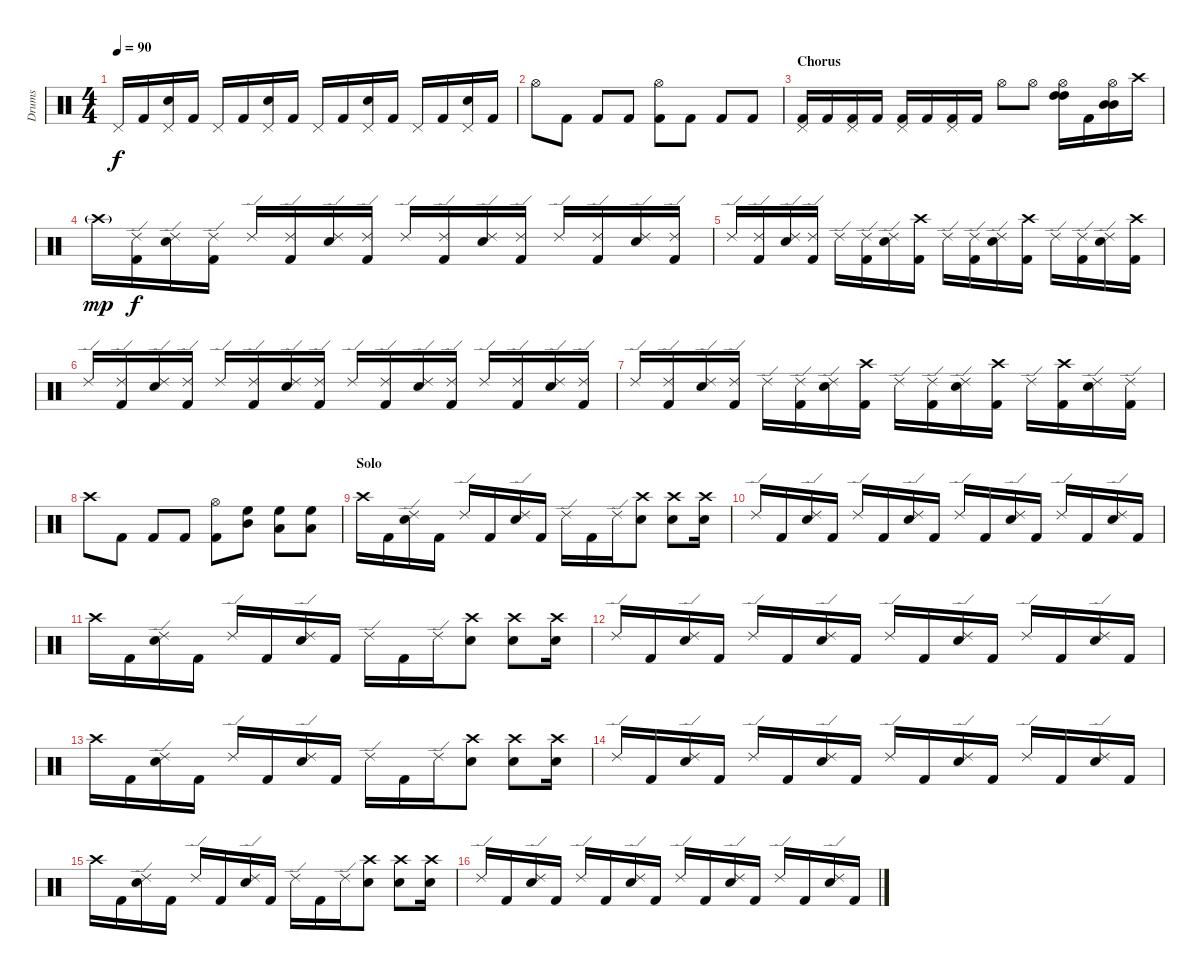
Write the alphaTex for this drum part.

\track ("Drums" "Drums") {instrument percussion}
\staff {score}
\articulation defaults
\ts (4 4)
\tempo 90
\clef neutral
\ks c "Pedal Hi-Hat (hit)".16{dy f} "Kick (hit) 2".16
("Pedal Hi-Hat (hit)" "Snare (hit) 2").16 "Kick (hit) 2".16 "Pedal Hi-Hat (hit)".16 "Kick (hit) 2".16 ("Pedal Hi-Hat (hit)" "Snare (hit) 2").16 "Kick (hit) 2".16 "Pedal Hi-Hat (hit)".16 "Kick (hit) 2".16 ("Pedal Hi-Hat (hit)" "Snare (hit) 2").16 "Kick (hit) 2".16 "Pedal Hi-Hat (hit)".16 "Kick (hit) 2".16 ("Pedal Hi-Hat (hit)" "Snare (hit) 2").16 "Kick (hit) 2".16 |
"Hi-Hat (open)".8 "Kick (hit) 2".8 "Kick (hit) 2".8 "Kick (hit) 2".8 ("Hi-Hat (open)" "Kick (hit) 2").8 "Kick (hit) 2".8 "Kick (hit) 2".8 "Kick (hit) 2".8 |
\section ("" "Chorus")
("Pedal Hi-Hat (hit)" "Kick (hit) 2").16 "Kick (hit) 2".16 ("Pedal Hi-Hat (hit)" "Kick (hit) 2").16 "Kick (hit) 2".16 ("Pedal Hi-Hat (hit)" "Kick (hit) 2").16 "Kick (hit) 2".16 ("Pedal Hi-Hat (hit)" "Kick (hit) 2").16 "Kick (hit) 2".16 "Hi-Hat (open)".8 "Hi-Hat (open)".8 ("High Tom (hit)" "Hi-Hat (open)" "High Tom (hit)").16 "Kick (hit) 2".16 ("Mid Tom (hit)" "Hi-Hat (open)" "Mid Tom (hit)").16 "Crash high (hit)".16 |
"Crash high (hit)"{g}.16{dy mp} ("Ride (edge) 2" "Kick (hit) 2").16{dy f} ("Ride (edge) 2" "Snare (hit) 2").16 ("Ride (edge) 2" "Kick (hit) 2").16 "Ride (edge) 2".16 ("Ride (edge) 2" "Kick (hit) 2").16 ("Ride (edge) 2" "Snare (hit) 2").16 ("Ride (edge) 2" "Kick (hit) 2").16 "Ride (edge) 2".16 ("Ride (edge) 2" "Kick (hit) 2").16 ("Ride (edge) 2" "Snare (hit) 2").16 ("Ride (edge) 2" "Kick (hit) 2").16 "Ride (edge) 2".16 ("Ride (edge) 2" "Kick (hit) 2").16 ("Ride (edge) 2" "Snare (hit) 2").16 ("Ride (edge) 2" "Kick (hit) 2").16 |
"Ride (edge) 2".16 ("Ride (edge) 2" "Kick (hit) 2").16 ("Ride (edge) 2" "Snare (hit) 2").16 ("Ride (edge) 2" "Kick (hit) 2").16 "Ride (edge) 2".16 ("Ride (edge) 2" "Kick (hit) 2").16 ("Ride (edge) 2" "Snare (hit) 2").16 ("Crash high (hit)" "Kick (hit) 2").16 "Ride (edge) 2".16 ("Ride (edge) 2" "Kick (hit) 2").16 ("Ride (edge) 2" "Snare (hit) 2").16 ("Crash high (hit)" "Kick (hit) 2").16 "Ride (edge) 2".16 ("Ride (edge) 2" "Kick (hit) 2").16 ("Ride (edge) 2" "Snare (hit) 2").16 ("Crash high (hit)" "Kick (hit) 2").16 |
"Ride (edge) 2".16 ("Ride (edge) 2" "Kick (hit) 2").16 ("Ride (edge) 2" "Snare (hit) 2").16 ("Ride (edge) 2" "Kick (hit) 2").16 "Ride (edge) 2".16 ("Ride (edge) 2" "Kick (hit) 2").16 ("Ride (edge) 2" "Snare (hit) 2").16 ("Ride (edge) 2" "Kick (hit) 2").16 "Ride (edge) 2".16 ("Ride (edge) 2" "Kick (hit) 2").16 ("Ride (edge) 2" "Snare (hit) 2").16 ("Ride (edge) 2" "Kick (hit) 2").16 "Ride (edge) 2".16 ("Ride (edge) 2" "Kick (hit) 2").16 ("Ride (edge) 2" "Snare (hit) 2").16 ("Ride (edge) 2" "Kick (hit) 2").16 |
"Ride (edge) 2".16 ("Ride (edge) 2" "Kick (hit) 2").16 ("Ride (edge) 2" "Snare (hit) 2").16 ("Ride (edge) 2" "Kick (hit) 2").16 "Ride (edge) 2".16 ("Ride (edge) 2" "Kick (hit) 2").16 ("Ride (edge) 2" "Snare (hit) 2").16 ("Crash high (hit)" "Kick (hit) 2").16 "Ride (edge) 2".16 ("Ride (edge) 2" "Kick (hit) 2").16 ("Ride (edge) 2" "Snare (hit) 2").16 ("Crash high (hit)" "Kick (hit) 2").16 "Ride (edge) 2".16 ("Crash high (hit)" "Kick (hit) 2").16 ("Ride (edge) 2" "Snare (hit) 2").16 ("Ride (edge) 2" "Kick (hit) 2").16 |
"Crash high (hit)".8 "Kick (hit) 2".8 "Kick (hit) 2".8 "Kick (hit) 2".8 ("Hi-Hat (open)" "Kick (hit) 2").8 ("High Floor Tom (hit)" "Mid Tom (hit)").8 ("High Floor Tom (hit)" "Low Tom (hit)").8 ("High Floor Tom (hit)" "Low Tom (hit)").8 |
\section ("" "Solo")
"Crash high (hit)".16 "Kick (hit) 2".16 ("Ride (edge) 2" "Snare (hit) 2").16 "Kick (hit) 2".16 "Ride (edge) 2".16 "Kick (hit) 2".16 ("Ride (edge) 2" "Snare (hit) 2").16 "Kick (hit) 2".16 "Ride (edge) 2".16 "Kick (hit) 2".16 "Ride (edge) 2".16 ("Crash high (hit)" "Snare (hit) 2").8 ("Crash high (hit)" "Snare (hit) 2").8 ("Crash high (hit)" "Snare (hit) 2").16 |
"Ride (edge) 2".16 "Kick (hit) 2".16 ("Ride (edge) 2" "Snare (hit) 2").16 "Kick (hit) 2".16 "Ride (edge) 2".16 "Kick (hit) 2".16 ("Ride (edge) 2" "Snare (hit) 2").16 "Kick (hit) 2".16 "Ride (edge) 2".16 "Kick (hit) 2".16 ("Ride (edge) 2" "Snare (hit) 2").16 "Kick (hit) 2".16 "Ride (edge) 2".16 "Kick (hit) 2".16 ("Ride (edge) 2" "Snare (hit) 2").16 "Kick (hit) 2".16 |
"Crash high (hit)".16 "Kick (hit) 2".16 ("Ride (edge) 2" "Snare (hit) 2").16 "Kick (hit) 2".16 "Ride (edge) 2".16 "Kick (hit) 2".16 ("Ride (edge) 2" "Snare (hit) 2").16 "Kick (hit) 2".16 "Ride (edge) 2".16 "Kick (hit) 2".16 "Ride (edge) 2".16 ("Crash high (hit)" "Snare (hit) 2").8 ("Crash high (hit)" "Snare (hit) 2").8 ("Crash high (hit)" "Snare (hit) 2").16 |
"Ride (edge) 2".16 "Kick (hit) 2".16 ("Ride (edge) 2" "Snare (hit) 2").16 "Kick (hit) 2".16 "Ride (edge) 2".16 "Kick (hit) 2".16 ("Ride (edge) 2" "Snare (hit) 2").16 "Kick (hit) 2".16 "Ride (edge) 2".16 "Kick (hit) 2".16 ("Ride (edge) 2" "Snare (hit) 2").16 "Kick (hit) 2".16 "Ride (edge) 2".16 "Kick (hit) 2".16 ("Ride (edge) 2" "Snare (hit) 2").16 "Kick (hit) 2".16 |
"Crash high (hit)".16 "Kick (hit) 2".16 ("Ride (edge) 2" "Snare (hit) 2").16 "Kick (hit) 2".16 "Ride (edge) 2".16 "Kick (hit) 2".16 ("Ride (edge) 2" "Snare (hit) 2").16 "Kick (hit) 2".16 "Ride (edge) 2".16 "Kick (hit) 2".16 "Ride (edge) 2".16 ("Crash high (hit)" "Snare (hit) 2").8 ("Crash high (hit)" "Snare (hit) 2").8 ("Crash high (hit)" "Snare (hit) 2").16 |
"Ride (edge) 2".16 "Kick (hit) 2".16 ("Ride (edge) 2" "Snare (hit) 2").16 "Kick (hit) 2".16 "Ride (edge) 2".16 "Kick (hit) 2".16 ("Ride (edge) 2" "Snare (hit) 2").16 "Kick (hit) 2".16 "Ride (edge) 2".16 "Kick (hit) 2".16 ("Ride (edge) 2" "Snare (hit) 2").16 "Kick (hit) 2".16 "Ride (edge) 2".16 "Kick (hit) 2".16 ("Ride (edge) 2" "Snare (hit) 2").16 "Kick (hit) 2".16 |
"Crash high (hit)".16 "Kick (hit) 2".16 ("Ride (edge) 2" "Snare (hit) 2").16 "Kick (hit) 2".16 "Ride (edge) 2".16 "Kick (hit) 2".16 ("Ride (edge) 2" "Snare (hit) 2").16 "Kick (hit) 2".16 "Ride (edge) 2".16 "Kick (hit) 2".16 "Ride (edge) 2".16 ("Crash high (hit)" "Snare (hit) 2").8 ("Crash high (hit)" "Snare (hit) 2").8 ("Crash high (hit)" "Snare (hit) 2").16 |
"Ride (edge) 2".16 "Kick (hit) 2".16 ("Ride (edge) 2" "Snare (hit) 2").16 "Kick (hit) 2".16 "Ride (edge) 2".16 "Kick (hit) 2".16 ("Ride (edge) 2" "Snare (hit) 2").16 "Kick (hit) 2".16 "Ride (edge) 2".16 "Kick (hit) 2".16 ("Ride (edge) 2" "Snare (hit) 2").16 "Kick (hit) 2".16 "Ride (edge) 2".16 "Kick (hit) 2".16 ("Ride (edge) 2" "Snare (hit) 2").16 "Kick (hit) 2".16
